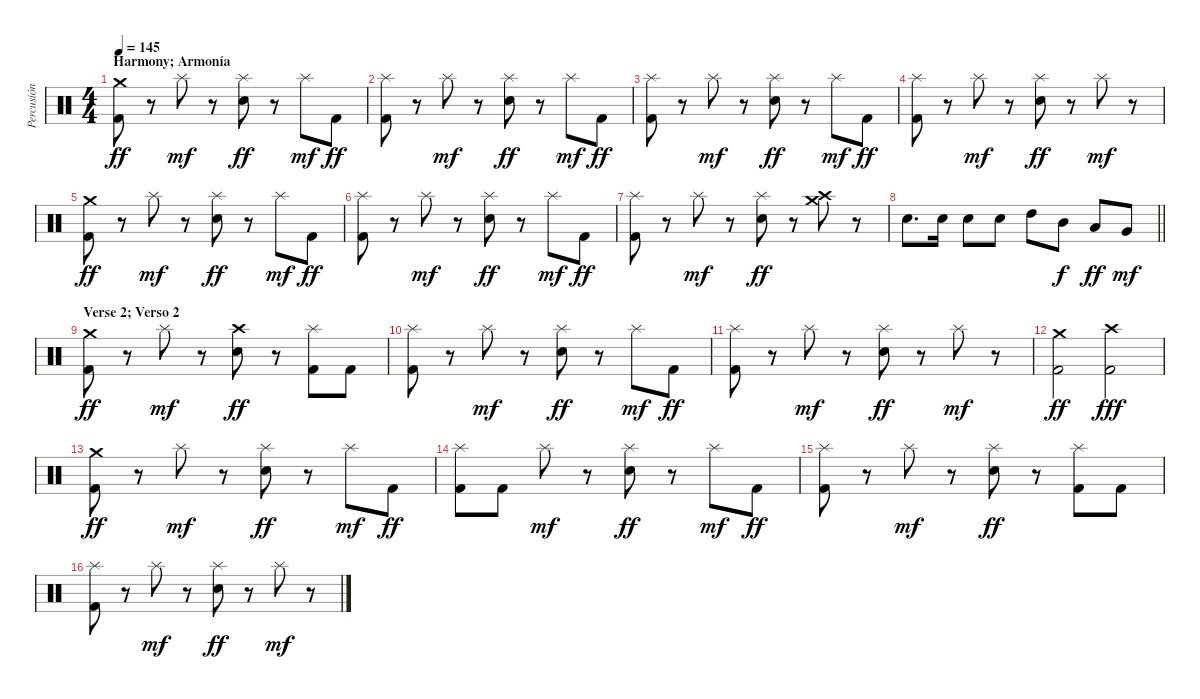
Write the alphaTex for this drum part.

\track ("Percusión" "Percusión") {instrument percussion}
\staff {score}
\articulation defaults
\ts (4 4)
\section ("" "Harmony; Armonía")
\tempo 145
\clef neutral
\ks c
("Crash medium (hit)" "Kick (hit) 2").8{dy ff} r.8 "Splash (hit)".8{dy mf} r.8 ("Splash (hit)" "Electric Snare (hit)").8{dy ff} r.8 "Splash (hit)".8{dy mf} "Kick (hit) 2".8{dy ff} |
("Splash (hit)" "Kick (hit) 2").8 r.8 "Splash (hit)".8{dy mf} r.8 ("Splash (hit)" "Electric Snare (hit)").8{dy ff} r.8 "Splash (hit)".8{dy mf} "Kick (hit) 2".8{dy ff} |
("Splash (hit)" "Kick (hit) 2").8 r.8 "Splash (hit)".8{dy mf} r.8 ("Splash (hit)" "Electric Snare (hit)").8{dy ff} r.8 "Splash (hit)".8{dy mf} "Kick (hit) 2".8{dy ff} |
("Splash (hit)" "Kick (hit) 2").8 r.8 "Splash (hit)".8{dy mf} r.8 ("Splash (hit)" "Electric Snare (hit)").8{dy ff} r.8 "Splash (hit)".8{dy mf} r.8 |
("Crash medium (hit)" "Kick (hit) 2").8{dy ff} r.8 "Splash (hit)".8{dy mf} r.8 ("Splash (hit)" "Electric Snare (hit)").8{dy ff} r.8 "Splash (hit)".8{dy mf} "Kick (hit) 2".8{dy ff} |
("Splash (hit)" "Kick (hit) 2").8 r.8 "Splash (hit)".8{dy mf} r.8 ("Splash (hit)" "Electric Snare (hit)").8{dy ff} r.8 "Splash (hit)".8{dy mf} "Kick (hit) 2".8{dy ff} |
("Splash (hit)" "Kick (hit) 2").8 r.8 "Splash (hit)".8{dy mf} r.8 ("Splash (hit)" "Electric Snare (hit)").8{dy ff} r.8 ("Crash medium (hit)" "Crash high (hit)").8 r.8 |
\barLineRight lightlight "Electric Snare (hit)".8{d} "Electric Snare (hit)".16 "Electric Snare (hit)".8 "Electric Snare (hit)".8 "High Tom (hit)".8 "Mid Tom (hit)".8{dy f} "Low Tom (hit)".8{dy ff} "Very Low Tom (hit)".8{dy mf}
|
\section ("" "Verse 2; Verso 2")
("Crash medium (hit)" "Kick (hit) 2").8{dy ff} r.8 "Splash (hit)".8{dy mf} r.8 ("Crash high (hit)" "Electric Snare (hit)").8{dy ff} r.8 ("Splash (hit)" "Kick (hit) 2").8 "Kick (hit) 2".8 |
("Splash (hit)" "Kick (hit) 2").8 r.8 "Splash (hit)".8{dy mf} r.8 ("Splash (hit)" "Electric Snare (hit)").8{dy ff} r.8 "Splash (hit)".8{dy mf} "Kick (hit) 2".8{dy ff} |
("Splash (hit)" "Kick (hit) 2").8 r.8 "Splash (hit)".8{dy mf} r.8 ("Splash (hit)" "Electric Snare (hit)").8{dy ff} r.8 "Splash (hit)".8{dy mf} r.8 |
("Crash medium (hit)" "Kick (hit) 2").2{dy ff} ("Crash high (hit)" "Kick (hit) 2").2{dy fff} |
("Crash medium (hit)" "Kick (hit) 2").8{dy ff} r.8 "Splash (hit)".8{dy mf} r.8 ("Splash (hit)" "Electric Snare (hit)").8{dy ff} r.8 "Splash (hit)".8{dy mf} "Kick (hit) 2".8{dy ff} |
("Splash (hit)" "Kick (hit) 2").8 "Kick (hit) 2".8 "Splash (hit)".8{dy mf} r.8 ("Splash (hit)" "Electric Snare (hit)").8{dy ff} r.8 "Splash (hit)".8{dy mf} "Kick (hit) 2".8{dy ff} |
("Splash (hit)" "Kick (hit) 2").8 r.8 "Splash (hit)".8{dy mf} r.8 ("Splash (hit)" "Electric Snare (hit)").8{dy ff} r.8 ("Splash (hit)" "Kick (hit) 2").8 "Kick (hit) 2".8 |
("Splash (hit)" "Kick (hit) 2").8 r.8 "Splash (hit)".8{dy mf} r.8 ("Splash (hit)" "Electric Snare (hit)").8{dy ff} r.8 "Splash (hit)".8{dy mf} r.8
